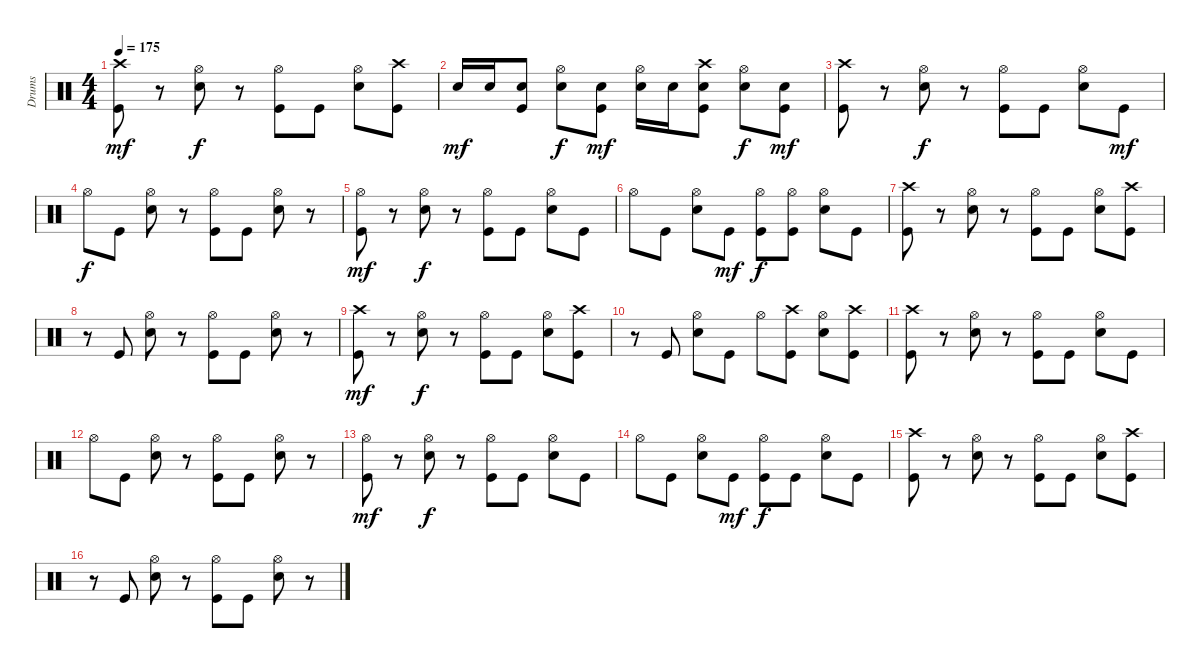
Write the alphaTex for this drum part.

\track ("Drums" "Drums") {instrument percussion}
\staff {score}
\articulation defaults
\ts (4 4)
\tempo 175
\clef neutral
\ks c
("Crash high (hit)" "Kick (hit)").8{dy mf} r.8 ("Hi-Hat (open)" "Snare (hit) 2").8{dy f} r.8 ("Hi-Hat (open)" "Kick (hit)").8 "Kick (hit)".8 ("Hi-Hat (open)" "Snare (hit) 2").8 ("Crash high (hit)" "Kick (hit)").8 |
"Snare (hit) 2".16{dy mf} "Snare (hit) 2".16 ("Snare (hit) 2" "Kick (hit)").8 ("Hi-Hat (open)" "Snare (hit) 2").8{dy f} ("Snare (hit) 2" "Kick (hit)").8{dy mf} ("Hi-Hat (open)" "Snare (hit) 2").16 "Snare (hit) 2".16 ("Crash high (hit)" "Snare (hit) 2" "Kick (hit)").8 ("Hi-Hat (open)" "Snare (hit) 2").8{dy f} ("Snare (hit) 2" "Kick (hit)").8{dy mf} |
("Crash high (hit)" "Kick (hit)").8 r.8 ("Hi-Hat (open)" "Snare (hit) 2").8{dy f} r.8 ("Hi-Hat (open)" "Kick (hit)").8 "Kick (hit)".8 ("Hi-Hat (open)" "Snare (hit) 2").8 "Kick (hit)".8{dy mf} |
"Hi-Hat (open)".8{dy f} "Kick (hit)".8 ("Hi-Hat (open)" "Snare (hit) 2").8 r.8 ("Hi-Hat (open)" "Kick (hit)").8 "Kick (hit)".8 ("Hi-Hat (open)" "Snare (hit) 2").8 r.8 |
("Hi-Hat (open)" "Kick (hit)").8{dy mf} r.8 ("Hi-Hat (open)" "Snare (hit) 2").8{dy f} r.8 ("Hi-Hat (open)" "Kick (hit)").8 "Kick (hit)".8 ("Hi-Hat (open)" "Snare (hit) 2").8 "Kick (hit)".8 |
"Hi-Hat (open)".8 "Kick (hit)".8 ("Hi-Hat (open)" "Snare (hit) 2").8 "Kick (hit)".8{dy mf} ("Hi-Hat (open)" "Kick (hit)").8{dy f} ("Hi-Hat (open)" "Kick (hit)").8 ("Hi-Hat (open)" "Snare (hit) 2").8 "Kick (hit)".8 |
("Crash high (hit)" "Kick (hit)").8 r.8 ("Hi-Hat (open)" "Snare (hit) 2").8 r.8 ("Hi-Hat (open)" "Kick (hit)").8 "Kick (hit)".8 ("Hi-Hat (open)" "Snare (hit) 2").8 ("Crash high (hit)" "Kick (hit)").8 |
r.8 "Kick (hit)".8 ("Hi-Hat (open)" "Snare (hit) 2").8 r.8 ("Hi-Hat (open)" "Kick (hit)").8 "Kick (hit)".8 ("Hi-Hat (open)" "Snare (hit) 2").8 r.8 |
("Crash high (hit)" "Kick (hit)").8{dy mf} r.8 ("Hi-Hat (open)" "Snare (hit) 2").8{dy f} r.8 ("Hi-Hat (open)" "Kick (hit)").8 "Kick (hit)".8 ("Hi-Hat (open)" "Snare (hit) 2").8 ("Crash high (hit)" "Kick (hit)").8 |
r.8 "Kick (hit)".8 ("Hi-Hat (open)" "Snare (hit) 2").8 "Kick (hit)".8 "Hi-Hat (open)".8 ("Crash high (hit)" "Kick (hit)").8 ("Hi-Hat (open)" "Snare (hit) 2").8 ("Crash high (hit)" "Kick (hit)").8 |
("Crash high (hit)" "Kick (hit)").8 r.8 ("Hi-Hat (open)" "Snare (hit) 2").8 r.8 ("Hi-Hat (open)" "Kick (hit)").8 "Kick (hit)".8 ("Hi-Hat (open)" "Snare (hit) 2").8 "Kick (hit)".8 |
"Hi-Hat (open)".8 "Kick (hit)".8 ("Hi-Hat (open)" "Snare (hit) 2").8 r.8 ("Hi-Hat (open)" "Kick (hit)").8 "Kick (hit)".8 ("Hi-Hat (open)" "Snare (hit) 2").8 r.8 |
("Hi-Hat (open)" "Kick (hit)").8{dy mf} r.8 ("Hi-Hat (open)" "Snare (hit) 2").8{dy f} r.8 ("Hi-Hat (open)" "Kick (hit)").8 "Kick (hit)".8 ("Hi-Hat (open)" "Snare (hit) 2").8 "Kick (hit)".8 |
"Hi-Hat (open)".8 "Kick (hit)".8 ("Hi-Hat (open)" "Snare (hit) 2").8 "Kick (hit)".8{dy mf} ("Hi-Hat (open)" "Kick (hit)").8{dy f} "Kick (hit)".8 ("Hi-Hat (open)" "Snare (hit) 2").8 "Kick (hit)".8 |
("Crash high (hit)" "Kick (hit)").8 r.8 ("Hi-Hat (open)" "Snare (hit) 2").8 r.8 ("Hi-Hat (open)" "Kick (hit)").8 "Kick (hit)".8 ("Hi-Hat (open)" "Snare (hit) 2").8 ("Crash high (hit)" "Kick (hit)").8 |
r.8 "Kick (hit)".8 ("Hi-Hat (open)" "Snare (hit) 2").8 r.8 ("Hi-Hat (open)" "Kick (hit)").8 "Kick (hit)".8 ("Hi-Hat (open)" "Snare (hit) 2").8 r.8
